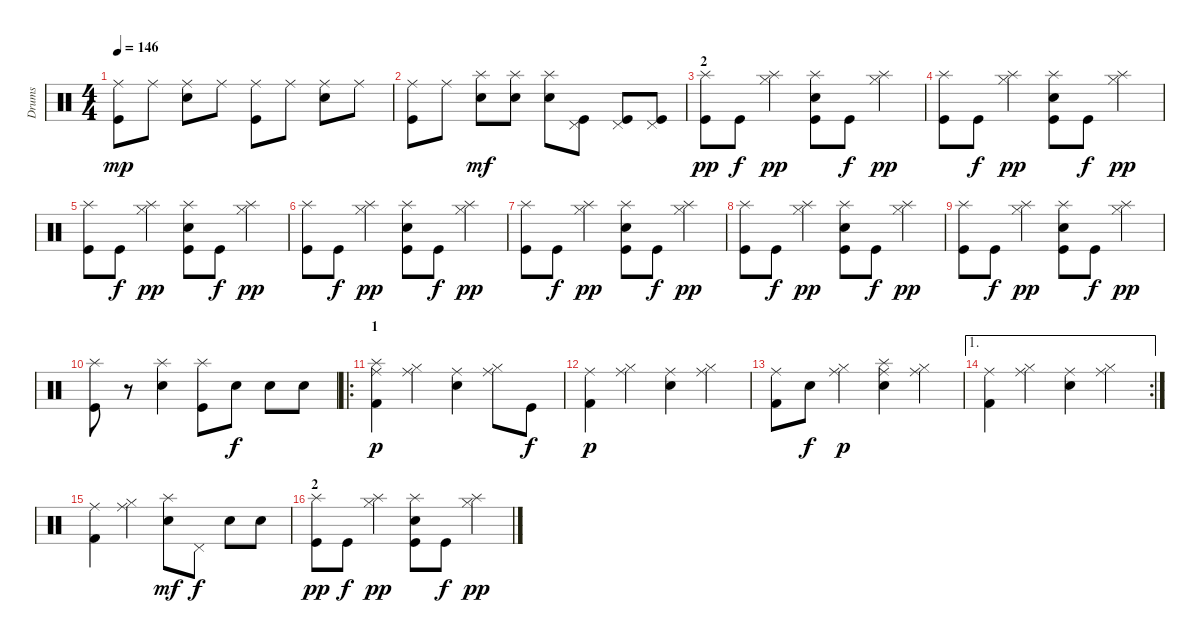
\track ("Drums" "Drums") {instrument percussion}
\staff {score}
\articulation defaults
\ts (4 4)
\tempo 146
\clef neutral
\ks c
("Kick (hit)" "Ride (middle)").8{dy mp} "Ride (middle)".8 ("Electric Snare (hit)" "Ride (middle)").8 "Ride (middle)".8 ("Kick (hit)" "Ride (middle)").8 "Ride (middle)".8 ("Electric Snare (hit)" "Ride (middle)").8 "Ride (middle)".8 |
("Kick (hit)" "Ride (middle)").8 "Ride (middle)".8 ("Electric Snare (hit)" "Splash (hit)").8{dy mf} ("Electric Snare (hit)" "Splash (hit)").8 ("Electric Snare (hit)" "Splash (hit)").8 ("Kick (hit)" "Pedal Hi-Hat (hit)").8 ("Kick (hit)" "Pedal Hi-Hat (hit)").8 ("Kick (hit)" "Pedal Hi-Hat (hit)").8 |
\section ("" "2")
("Kick (hit)" "Splash (hit)").8{dy pp} "Kick (hit)".8{dy f} ("Hi-Hat (closed)" "Splash (hit)").4{dy pp} ("Kick (hit)" "Electric Snare (hit)" "Splash (hit)").8 "Kick (hit)".8{dy f} ("Hi-Hat (closed)" "Splash (hit)").4{dy pp} |
("Kick (hit)" "Splash (hit)").8 "Kick (hit)".8{dy f} ("Hi-Hat (closed)" "Splash (hit)").4{dy pp} ("Kick (hit)" "Electric Snare (hit)" "Splash (hit)").8 "Kick (hit)".8{dy f} ("Hi-Hat (closed)" "Splash (hit)").4{dy pp} |
("Kick (hit)" "Splash (hit)").8 "Kick (hit)".8{dy f} ("Hi-Hat (closed)" "Splash (hit)").4{dy pp} ("Kick (hit)" "Electric Snare (hit)" "Splash (hit)").8 "Kick (hit)".8{dy f} ("Hi-Hat (closed)" "Splash (hit)").4{dy pp} |
("Kick (hit)" "Splash (hit)").8 "Kick (hit)".8{dy f} ("Hi-Hat (closed)" "Splash (hit)").4{dy pp} ("Kick (hit)" "Electric Snare (hit)" "Splash (hit)").8 "Kick (hit)".8{dy f} ("Hi-Hat (closed)" "Splash (hit)").4{dy pp} |
("Kick (hit)" "Splash (hit)").8 "Kick (hit)".8{dy f} ("Hi-Hat (closed)" "Splash (hit)").4{dy pp} ("Kick (hit)" "Electric Snare (hit)" "Splash (hit)").8 "Kick (hit)".8{dy f} ("Hi-Hat (closed)" "Splash (hit)").4{dy pp} |
("Kick (hit)" "Splash (hit)").8 "Kick (hit)".8{dy f} ("Hi-Hat (closed)" "Splash (hit)").4{dy pp} ("Kick (hit)" "Electric Snare (hit)" "Splash (hit)").8 "Kick (hit)".8{dy f} ("Hi-Hat (closed)" "Splash (hit)").4{dy pp} |
("Kick (hit)" "Splash (hit)").8 "Kick (hit)".8{dy f} ("Hi-Hat (closed)" "Splash (hit)").4{dy pp} ("Kick (hit)" "Electric Snare (hit)" "Splash (hit)").8 "Kick (hit)".8{dy f} ("Hi-Hat (closed)" "Splash (hit)").4{dy pp} |
("Kick (hit)" "Splash (hit)").8 r.8 ("Electric Snare (hit)" "Splash (hit)").4 ("Kick (hit)" "Splash (hit)").8 "Electric Snare (hit)".8{dy f} "Electric Snare (hit)".8 "Electric Snare (hit)".8 |
\ro
\section ("" "1")
("Kick (hit) 2" "Splash (hit)" "Ride (middle)").4{dy p} ("Hi-Hat (closed)" "Ride (middle)").4 ("Electric Snare (hit)" "Ride (middle)").4 ("Hi-Hat (closed)" "Ride (middle)").8 "Kick (hit)".8{dy f} |
("Kick (hit) 2" "Ride (middle)").4{dy p} ("Hi-Hat (closed)" "Ride (middle)").4 ("Electric Snare (hit)" "Ride (middle)").4 ("Hi-Hat (closed)" "Ride (middle)").4 |
("Kick (hit) 2" "Ride (middle)").8 "Electric Snare (hit)".8{dy f} ("Hi-Hat (closed)" "Ride (middle)").4{dy p} ("Electric Snare (hit)" "Splash (hit)" "Ride (middle)").4 ("Hi-Hat (closed)" "Ride (middle)").4 |
\ae 1
\rc 2
("Kick (hit) 2" "Ride (middle)").4 ("Hi-Hat (closed)" "Ride (middle)").4 ("Electric Snare (hit)" "Ride (middle)").4 ("Hi-Hat (closed)" "Ride (middle)").4 |
("Kick (hit) 2" "Ride (middle)").4 ("Hi-Hat (closed)" "Ride (middle)").4 ("Electric Snare (hit)" "Splash (hit)").8{dy mf} "Pedal Hi-Hat (hit)".8{dy f} "Electric Snare (hit)".8 "Electric Snare (hit)".8 |
\section ("" "2")
("Kick (hit)" "Splash (hit)").8{dy pp} "Kick (hit)".8{dy f} ("Hi-Hat (closed)" "Splash (hit)").4{dy pp} ("Kick (hit)" "Electric Snare (hit)" "Splash (hit)").8 "Kick (hit)".8{dy f} ("Hi-Hat (closed)" "Splash (hit)").4{dy pp}
